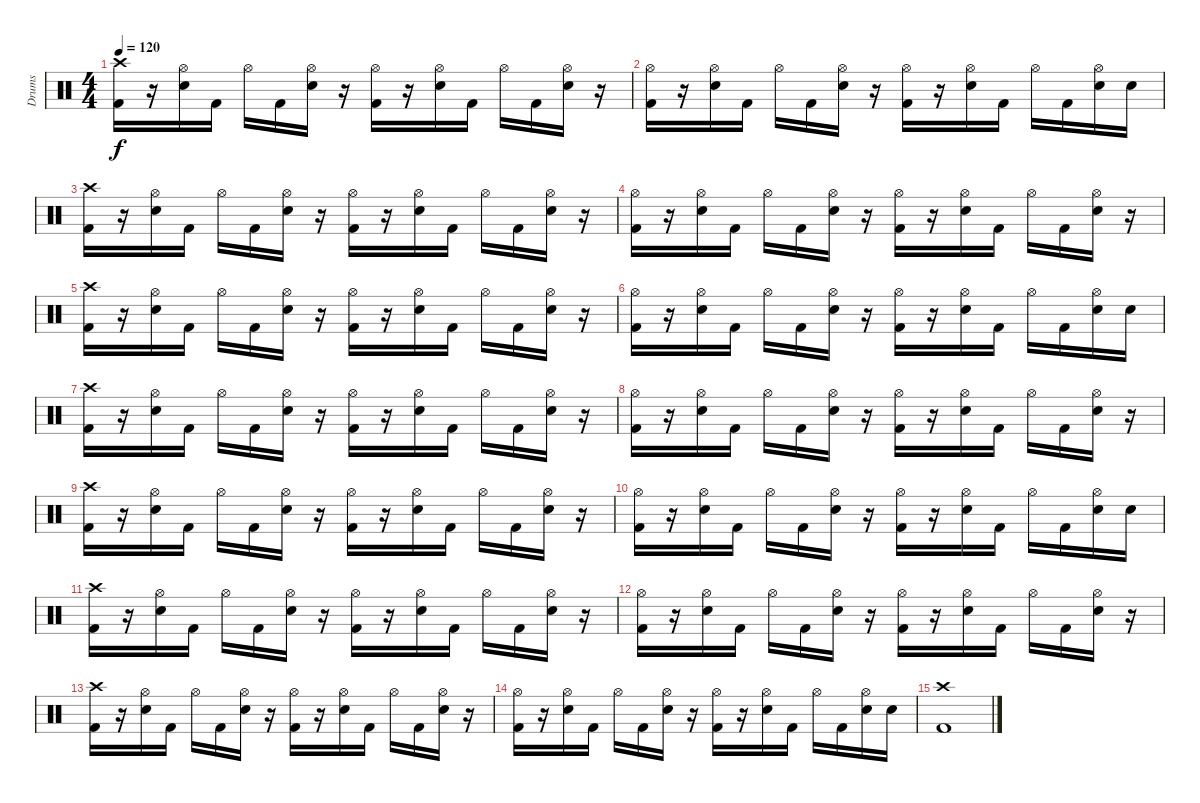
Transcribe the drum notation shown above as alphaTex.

\track ("Drums" "Drums") {instrument percussion}
\staff {score}
\articulation defaults
\ts (4 4)
\tempo 120
\clef neutral
\ks c
("Crash high (hit)" "Kick (hit) 2").16{dy f} r.16 ("Hi-Hat (open)" "Electric Snare (hit)").16 "Kick (hit) 2".16 "Hi-Hat (open)".16 "Kick (hit) 2".16 ("Hi-Hat (open)" "Electric Snare (hit)").16 r.16 ("Hi-Hat (open)" "Kick (hit) 2").16 r.16 ("Hi-Hat (open)" "Electric Snare (hit)").16 "Kick (hit) 2".16 "Hi-Hat (open)".16 "Kick (hit) 2".16 ("Hi-Hat (open)" "Electric Snare (hit)").16 r.16 |
("Hi-Hat (open)" "Kick (hit) 2").16 r.16 ("Hi-Hat (open)" "Electric Snare (hit)").16 "Kick (hit) 2".16 "Hi-Hat (open)".16 "Kick (hit) 2".16 ("Hi-Hat (open)" "Electric Snare (hit)").16 r.16 ("Hi-Hat (open)" "Kick (hit) 2").16 r.16 ("Hi-Hat (open)" "Electric Snare (hit)").16 "Kick (hit) 2".16 "Hi-Hat (open)".16 "Kick (hit) 2".16 ("Hi-Hat (open)" "Electric Snare (hit)").16 "Electric Snare (hit)".16 |
("Crash high (hit)" "Kick (hit) 2").16 r.16 ("Hi-Hat (open)" "Electric Snare (hit)").16 "Kick (hit) 2".16 "Hi-Hat (open)".16 "Kick (hit) 2".16 ("Hi-Hat (open)" "Electric Snare (hit)").16 r.16 ("Hi-Hat (open)" "Kick (hit) 2").16 r.16 ("Hi-Hat (open)" "Electric Snare (hit)").16 "Kick (hit) 2".16 "Hi-Hat (open)".16 "Kick (hit) 2".16 ("Hi-Hat (open)" "Electric Snare (hit)").16 r.16 |
("Hi-Hat (open)" "Kick (hit) 2").16 r.16 ("Hi-Hat (open)" "Electric Snare (hit)").16 "Kick (hit) 2".16 "Hi-Hat (open)".16 "Kick (hit) 2".16 ("Hi-Hat (open)" "Electric Snare (hit)").16 r.16 ("Hi-Hat (open)" "Kick (hit) 2").16 r.16 ("Hi-Hat (open)" "Electric Snare (hit)").16 "Kick (hit) 2".16 "Hi-Hat (open)".16 "Kick (hit) 2".16 ("Hi-Hat (open)" "Electric Snare (hit)").16 r.16 |
("Crash high (hit)" "Kick (hit) 2").16 r.16 ("Hi-Hat (open)" "Electric Snare (hit)").16 "Kick (hit) 2".16 "Hi-Hat (open)".16 "Kick (hit) 2".16 ("Hi-Hat (open)" "Electric Snare (hit)").16 r.16 ("Hi-Hat (open)" "Kick (hit) 2").16 r.16 ("Hi-Hat (open)" "Electric Snare (hit)").16 "Kick (hit) 2".16 "Hi-Hat (open)".16 "Kick (hit) 2".16 ("Hi-Hat (open)" "Electric Snare (hit)").16 r.16 |
("Hi-Hat (open)" "Kick (hit) 2").16 r.16 ("Hi-Hat (open)" "Electric Snare (hit)").16 "Kick (hit) 2".16 "Hi-Hat (open)".16 "Kick (hit) 2".16 ("Hi-Hat (open)" "Electric Snare (hit)").16 r.16 ("Hi-Hat (open)" "Kick (hit) 2").16 r.16 ("Hi-Hat (open)" "Electric Snare (hit)").16 "Kick (hit) 2".16 "Hi-Hat (open)".16 "Kick (hit) 2".16 ("Hi-Hat (open)" "Electric Snare (hit)").16 "Electric Snare (hit)".16 |
("Crash high (hit)" "Kick (hit) 2").16 r.16 ("Hi-Hat (open)" "Electric Snare (hit)").16 "Kick (hit) 2".16 "Hi-Hat (open)".16 "Kick (hit) 2".16 ("Hi-Hat (open)" "Electric Snare (hit)").16 r.16 ("Hi-Hat (open)" "Kick (hit) 2").16 r.16 ("Hi-Hat (open)" "Electric Snare (hit)").16 "Kick (hit) 2".16 "Hi-Hat (open)".16 "Kick (hit) 2".16 ("Hi-Hat (open)" "Electric Snare (hit)").16 r.16 |
("Hi-Hat (open)" "Kick (hit) 2").16 r.16 ("Hi-Hat (open)" "Electric Snare (hit)").16 "Kick (hit) 2".16 "Hi-Hat (open)".16 "Kick (hit) 2".16 ("Hi-Hat (open)" "Electric Snare (hit)").16 r.16 ("Hi-Hat (open)" "Kick (hit) 2").16 r.16 ("Hi-Hat (open)" "Electric Snare (hit)").16 "Kick (hit) 2".16 "Hi-Hat (open)".16 "Kick (hit) 2".16 ("Hi-Hat (open)" "Electric Snare (hit)").16 r.16 |
("Crash high (hit)" "Kick (hit) 2").16 r.16 ("Hi-Hat (open)" "Electric Snare (hit)").16 "Kick (hit) 2".16 "Hi-Hat (open)".16 "Kick (hit) 2".16 ("Hi-Hat (open)" "Electric Snare (hit)").16 r.16 ("Hi-Hat (open)" "Kick (hit) 2").16 r.16 ("Hi-Hat (open)" "Electric Snare (hit)").16 "Kick (hit) 2".16 "Hi-Hat (open)".16 "Kick (hit) 2".16 ("Hi-Hat (open)" "Electric Snare (hit)").16 r.16 |
("Hi-Hat (open)" "Kick (hit) 2").16 r.16 ("Hi-Hat (open)" "Electric Snare (hit)").16 "Kick (hit) 2".16 "Hi-Hat (open)".16 "Kick (hit) 2".16 ("Hi-Hat (open)" "Electric Snare (hit)").16 r.16 ("Hi-Hat (open)" "Kick (hit) 2").16 r.16 ("Hi-Hat (open)" "Electric Snare (hit)").16 "Kick (hit) 2".16 "Hi-Hat (open)".16 "Kick (hit) 2".16 ("Hi-Hat (open)" "Electric Snare (hit)").16 "Electric Snare (hit)".16 |
("Crash high (hit)" "Kick (hit) 2").16 r.16 ("Hi-Hat (open)" "Electric Snare (hit)").16 "Kick (hit) 2".16 "Hi-Hat (open)".16 "Kick (hit) 2".16 ("Hi-Hat (open)" "Electric Snare (hit)").16 r.16 ("Hi-Hat (open)" "Kick (hit) 2").16 r.16 ("Hi-Hat (open)" "Electric Snare (hit)").16 "Kick (hit) 2".16 "Hi-Hat (open)".16 "Kick (hit) 2".16 ("Hi-Hat (open)" "Electric Snare (hit)").16 r.16 |
("Hi-Hat (open)" "Kick (hit) 2").16 r.16 ("Hi-Hat (open)" "Electric Snare (hit)").16 "Kick (hit) 2".16 "Hi-Hat (open)".16 "Kick (hit) 2".16 ("Hi-Hat (open)" "Electric Snare (hit)").16 r.16 ("Hi-Hat (open)" "Kick (hit) 2").16 r.16 ("Hi-Hat (open)" "Electric Snare (hit)").16 "Kick (hit) 2".16 "Hi-Hat (open)".16 "Kick (hit) 2".16 ("Hi-Hat (open)" "Electric Snare (hit)").16 r.16 |
("Crash high (hit)" "Kick (hit) 2").16 r.16 ("Hi-Hat (open)" "Electric Snare (hit)").16 "Kick (hit) 2".16 "Hi-Hat (open)".16 "Kick (hit) 2".16 ("Hi-Hat (open)" "Electric Snare (hit)").16 r.16 ("Hi-Hat (open)" "Kick (hit) 2").16 r.16 ("Hi-Hat (open)" "Electric Snare (hit)").16 "Kick (hit) 2".16 "Hi-Hat (open)".16 "Kick (hit) 2".16 ("Hi-Hat (open)" "Electric Snare (hit)").16 r.16 |
("Hi-Hat (open)" "Kick (hit) 2").16 r.16 ("Hi-Hat (open)" "Electric Snare (hit)").16 "Kick (hit) 2".16 "Hi-Hat (open)".16 "Kick (hit) 2".16 ("Hi-Hat (open)" "Electric Snare (hit)").16 r.16 ("Hi-Hat (open)" "Kick (hit) 2").16 r.16 ("Hi-Hat (open)" "Electric Snare (hit)").16 "Kick (hit) 2".16 "Hi-Hat (open)".16 "Kick (hit) 2".16 ("Hi-Hat (open)" "Electric Snare (hit)").16 "Electric Snare (hit)".16 |
("Crash high (hit)" "Kick (hit) 2").1
